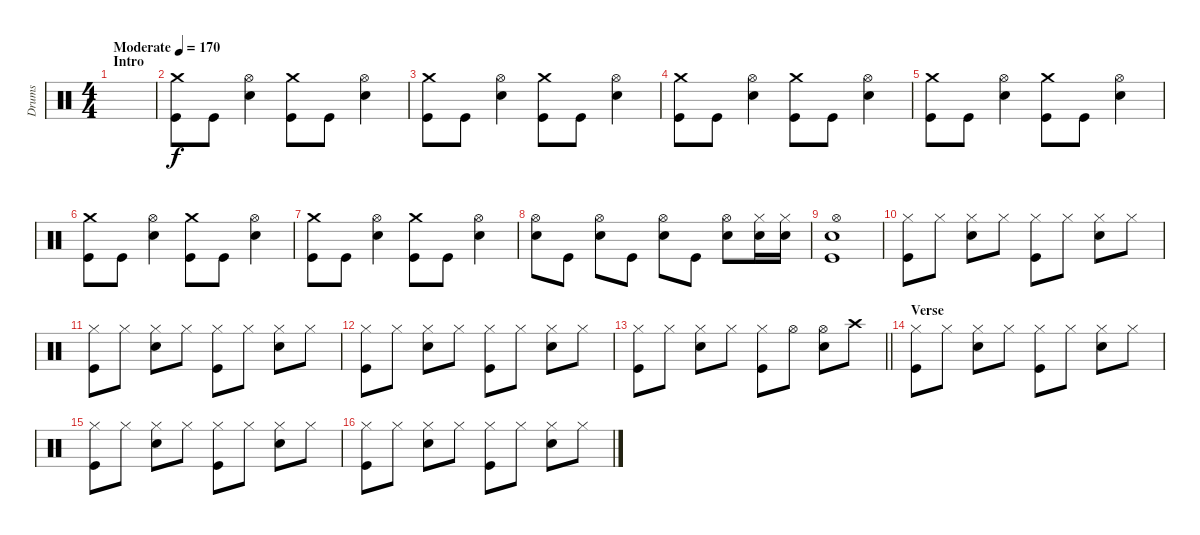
\track ("Drums" "Drums") {instrument percussion}
\staff {score}
\articulation defaults
\ts (4 4)
\section ("" "Intro")
\tempo (170 "Moderate")
\clef neutral
\ks c
|
("Crash medium (hit)" "Kick (hit)").8 "Kick (hit)".8 ("Hi-Hat (open)" "Electric Snare (hit)").4 ("Crash medium (hit)" "Kick (hit)").8 "Kick (hit)".8 ("Hi-Hat (open)" "Electric Snare (hit)").4 |
("Crash medium (hit)" "Kick (hit)").8 "Kick (hit)".8 ("Hi-Hat (open)" "Electric Snare (hit)").4 ("Crash medium (hit)" "Kick (hit)").8 "Kick (hit)".8 ("Hi-Hat (open)" "Electric Snare (hit)").4 |
("Crash medium (hit)" "Kick (hit)").8 "Kick (hit)".8 ("Hi-Hat (open)" "Electric Snare (hit)").4 ("Crash medium (hit)" "Kick (hit)").8 "Kick (hit)".8 ("Hi-Hat (open)" "Electric Snare (hit)").4 |
("Crash medium (hit)" "Kick (hit)").8 "Kick (hit)".8 ("Hi-Hat (open)" "Electric Snare (hit)").4 ("Crash medium (hit)" "Kick (hit)").8 "Kick (hit)".8 ("Hi-Hat (open)" "Electric Snare (hit)").4 |
("Crash medium (hit)" "Kick (hit)").8 "Kick (hit)".8 ("Hi-Hat (open)" "Electric Snare (hit)").4 ("Crash medium (hit)" "Kick (hit)").8 "Kick (hit)".8 ("Hi-Hat (open)" "Electric Snare (hit)").4 |
("Crash medium (hit)" "Kick (hit)").8 "Kick (hit)".8 ("Hi-Hat (open)" "Electric Snare (hit)").4 ("Crash medium (hit)" "Kick (hit)").8 "Kick (hit)".8 ("Hi-Hat (open)" "Electric Snare (hit)").4 |
("Hi-Hat (open)" "Electric Snare (hit)").8 "Kick (hit)".8 ("Hi-Hat (open)" "Electric Snare (hit)").8 "Kick (hit)".8 ("Hi-Hat (open)" "Electric Snare (hit)").8 "Kick (hit)".8 ("Hi-Hat (open)" "Electric Snare (hit)").8 ("Hi-Hat (closed)" "Electric Snare (hit)").16 ("Hi-Hat (closed)" "Electric Snare (hit)").16 |
("Hi-Hat (open)" "Electric Snare (hit)" "Kick (hit)").1 |
("Hi-Hat (closed)" "Kick (hit)").8 "Hi-Hat (closed)".8 ("Hi-Hat (closed)" "Electric Snare (hit)").8 "Hi-Hat (closed)".8 ("Hi-Hat (closed)" "Kick (hit)").8 "Hi-Hat (closed)".8 ("Hi-Hat (closed)" "Electric Snare (hit)").8 "Hi-Hat (closed)".8 |
("Hi-Hat (closed)" "Kick (hit)").8 "Hi-Hat (closed)".8 ("Hi-Hat (closed)" "Electric Snare (hit)").8 "Hi-Hat (closed)".8 ("Hi-Hat (closed)" "Kick (hit)").8 "Hi-Hat (closed)".8 ("Hi-Hat (closed)" "Electric Snare (hit)").8 "Hi-Hat (closed)".8 |
("Hi-Hat (closed)" "Kick (hit)").8 "Hi-Hat (closed)".8 ("Hi-Hat (closed)" "Electric Snare (hit)").8 "Hi-Hat (closed)".8 ("Hi-Hat (closed)" "Kick (hit)").8 "Hi-Hat (closed)".8 ("Hi-Hat (closed)" "Electric Snare (hit)").8 "Hi-Hat (closed)".8 |
\barLineRight lightlight
("Hi-Hat (closed)" "Kick (hit)").8 "Hi-Hat (closed)".8 ("Hi-Hat (closed)" "Electric Snare (hit)").8 "Hi-Hat (closed)".8 ("Hi-Hat (closed)" "Kick (hit)").8 "Hi-Hat (open)".8 ("Hi-Hat (open)" "Electric Snare (hit)").8 "Crash high (hit)".8 |
\section ("" "Verse")
("Hi-Hat (closed)" "Kick (hit)").8 "Hi-Hat (closed)".8 ("Hi-Hat (closed)" "Electric Snare (hit)").8 "Hi-Hat (closed)".8 ("Hi-Hat (closed)" "Kick (hit)").8 "Hi-Hat (closed)".8 ("Hi-Hat (closed)" "Electric Snare (hit)").8 "Hi-Hat (closed)".8 |
("Hi-Hat (closed)" "Kick (hit)").8 "Hi-Hat (closed)".8 ("Hi-Hat (closed)" "Electric Snare (hit)").8 "Hi-Hat (closed)".8 ("Hi-Hat (closed)" "Kick (hit)").8 "Hi-Hat (closed)".8 ("Hi-Hat (closed)" "Electric Snare (hit)").8 "Hi-Hat (closed)".8 |
("Hi-Hat (closed)" "Kick (hit)").8 "Hi-Hat (closed)".8 ("Hi-Hat (closed)" "Electric Snare (hit)").8 "Hi-Hat (closed)".8 ("Hi-Hat (closed)" "Kick (hit)").8 "Hi-Hat (closed)".8 ("Hi-Hat (closed)" "Electric Snare (hit)").8 "Hi-Hat (closed)".8
